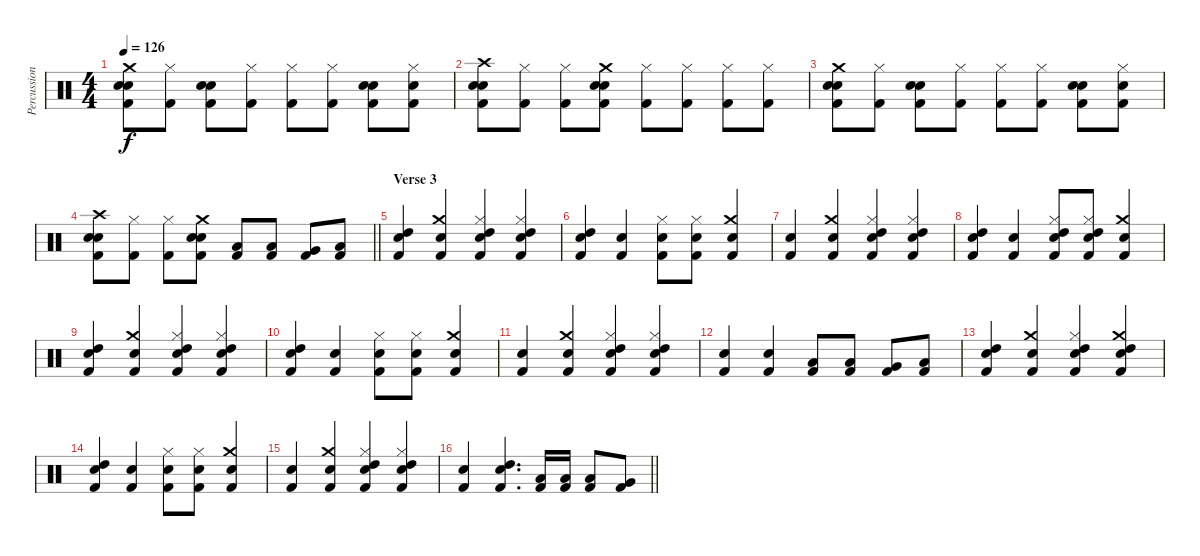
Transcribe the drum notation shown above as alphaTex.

\track ("Percussion" "Percussion") {instrument percussion}
\staff {score}
\articulation defaults
\ts (4 4)
\tempo 126
\clef neutral
\ks c
("Kick (hit) 2" "Crash medium (hit)" "Snare (hit) 2" "Electric Snare (hit)").8{dy f} ("Hi-Hat (closed)" "Kick (hit) 2").8 ("Kick (hit) 2" "Snare (hit) 2" "Electric Snare (hit)").8 ("Hi-Hat (closed)" "Kick (hit) 2").8 ("Hi-Hat (closed)" "Kick (hit) 2").8 ("Hi-Hat (closed)" "Kick (hit) 2").8 ("Kick (hit) 2" "Snare (hit) 2" "Electric Snare (hit)").8 ("Snare (hit) 2" "Hi-Hat (closed)" "Kick (hit) 2").8 |
("Kick (hit) 2" "Crash high (hit)" "Snare (hit) 2" "Electric Snare (hit)").8 ("Hi-Hat (closed)" "Kick (hit) 2").8 ("Hi-Hat (closed)" "Kick (hit) 2").8 ("Kick (hit) 2" "Crash medium (hit)" "Snare (hit) 2" "Electric Snare (hit)").8 ("Hi-Hat (closed)" "Kick (hit) 2").8 ("Hi-Hat (closed)" "Kick (hit) 2").8 ("Hi-Hat (closed)" "Kick (hit) 2").8 ("Hi-Hat (closed)" "Kick (hit) 2").8 |
("Kick (hit) 2" "Crash medium (hit)" "Snare (hit) 2" "Electric Snare (hit)").8 ("Hi-Hat (closed)" "Kick (hit) 2").8 ("Kick (hit) 2" "Snare (hit) 2" "Electric Snare (hit)").8 ("Hi-Hat (closed)" "Kick (hit) 2").8 ("Hi-Hat (closed)" "Kick (hit) 2").8 ("Hi-Hat (closed)" "Kick (hit) 2").8 ("Kick (hit) 2" "Snare (hit) 2" "Electric Snare (hit)").8 ("Snare (hit) 2" "Hi-Hat (closed)" "Kick (hit) 2").8 |
\barLineRight lightlight
("Kick (hit) 2" "Crash high (hit)" "Snare (hit) 2" "Electric Snare (hit)").8 ("Hi-Hat (closed)" "Kick (hit) 2").8 ("Hi-Hat (closed)" "Kick (hit) 2").8 ("Kick (hit) 2" "Crash medium (hit)" "Snare (hit) 2" "Electric Snare (hit)").8 ("Low Tom (hit)" "Kick (hit) 2").8 ("Low Tom (hit)" "Kick (hit) 2").8 ("Very Low Tom (hit)" "Kick (hit) 2").8 ("Low Floor Tom (hit)" "Kick (hit) 2").8 |
\section ("" "Verse 3")
("High Tom (hit)" "Electric Snare (hit)" "Kick (hit) 2").4 ("Crash medium (hit)" "Snare (hit) 2" "Kick (hit) 2").4 ("High Tom (hit)" "Hi-Hat (closed)" "Electric Snare (hit)" "Kick (hit) 2").4 ("High Tom (hit)" "Hi-Hat (closed)" "Snare (hit) 2" "Kick (hit) 2").4 |
("High Tom (hit)" "Electric Snare (hit)" "Kick (hit) 2").4 ("Snare (hit) 2" "Kick (hit) 2").4 ("Hi-Hat (closed)" "Electric Snare (hit)" "Kick (hit) 2").8 ("Hi-Hat (closed)" "Snare (hit) 2" "Kick (hit) 2").8 ("Crash medium (hit)" "Snare (hit) 2" "Kick (hit) 2").4 |
("Electric Snare (hit)" "Kick (hit) 2").4 ("Crash medium (hit)" "Snare (hit) 2" "Kick (hit) 2").4 ("High Tom (hit)" "Hi-Hat (closed)" "Electric Snare (hit)" "Kick (hit) 2").4 ("High Tom (hit)" "Hi-Hat (closed)" "Snare (hit) 2" "Kick (hit) 2").4 |
("High Tom (hit)" "Electric Snare (hit)" "Kick (hit) 2").4 ("Snare (hit) 2" "Kick (hit) 2").4 ("High Tom (hit)" "Hi-Hat (closed)" "Electric Snare (hit)" "Kick (hit) 2").8 ("High Tom (hit)" "Hi-Hat (closed)" "Snare (hit) 2" "Kick (hit) 2").8 ("Crash medium (hit)" "Snare (hit) 2" "Kick (hit) 2").4 |
("High Tom (hit)" "Electric Snare (hit)" "Kick (hit) 2").4 ("Crash medium (hit)" "Snare (hit) 2" "Kick (hit) 2").4 ("High Tom (hit)" "Hi-Hat (closed)" "Electric Snare (hit)" "Kick (hit) 2").4 ("High Tom (hit)" "Hi-Hat (closed)" "Snare (hit) 2" "Kick (hit) 2").4 |
("High Tom (hit)" "Electric Snare (hit)" "Kick (hit) 2").4 ("Snare (hit) 2" "Kick (hit) 2").4 ("Hi-Hat (closed)" "Electric Snare (hit)" "Kick (hit) 2").8 ("Hi-Hat (closed)" "Snare (hit) 2" "Kick (hit) 2").8 ("Crash medium (hit)" "Snare (hit) 2" "Kick (hit) 2").4 |
("Electric Snare (hit)" "Kick (hit) 2").4 ("Crash medium (hit)" "Snare (hit) 2" "Kick (hit) 2").4 ("High Tom (hit)" "Hi-Hat (closed)" "Electric Snare (hit)" "Kick (hit) 2").4 ("High Tom (hit)" "Hi-Hat (closed)" "Snare (hit) 2" "Kick (hit) 2").4 |
("Electric Snare (hit)" "Kick (hit) 2").4 ("Snare (hit) 2" "Kick (hit) 2").4 ("Low Tom (hit)" "Kick (hit) 2").8 ("Low Tom (hit)" "Kick (hit) 2").8 ("Very Low Tom (hit)" "Kick (hit) 2").8 ("Low Floor Tom (hit)" "Kick (hit) 2").8 |
("High Tom (hit)" "Electric Snare (hit)" "Kick (hit) 2").4 ("Crash medium (hit)" "Snare (hit) 2" "Kick (hit) 2").4 ("High Tom (hit)" "Hi-Hat (closed)" "Electric Snare (hit)" "Kick (hit) 2").4 ("High Tom (hit)" "Crash medium (hit)" "Snare (hit) 2" "Kick (hit) 2").4 |
("High Tom (hit)" "Electric Snare (hit)" "Kick (hit) 2").4 ("Snare (hit) 2" "Kick (hit) 2").4 ("Hi-Hat (closed)" "Electric Snare (hit)" "Kick (hit) 2").8 ("Hi-Hat (closed)" "Snare (hit) 2" "Kick (hit) 2").8 ("Crash medium (hit)" "Snare (hit) 2" "Kick (hit) 2").4 |
("Electric Snare (hit)" "Kick (hit) 2").4 ("Crash medium (hit)" "Snare (hit) 2" "Kick (hit) 2").4 ("High Tom (hit)" "Hi-Hat (closed)" "Electric Snare (hit)" "Kick (hit) 2").4 ("High Tom (hit)" "Hi-Hat (closed)" "Snare (hit) 2" "Kick (hit) 2").4 |
\barLineRight lightlight
("Electric Snare (hit)" "Kick (hit) 2").4 ("High Tom (hit)" "Snare (hit) 2" "Kick (hit) 2").4{d} ("Low Tom (hit)" "Kick (hit) 2").16 ("Low Tom (hit)" "Kick (hit) 2").16 ("Low Tom (hit)" "Kick (hit) 2").8 ("Very Low Tom (hit)" "Kick (hit) 2").8
